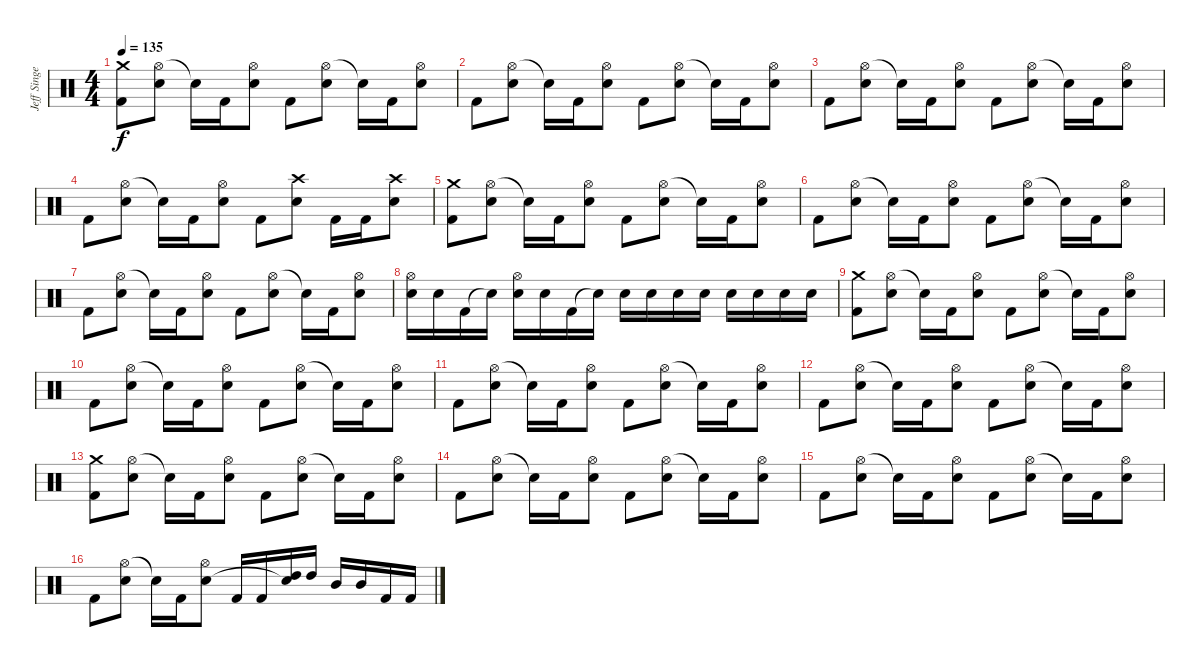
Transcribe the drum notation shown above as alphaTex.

\track ("Jeff Singer" "Jeff Singe") {instrument percussion}
\staff {score}
\articulation defaults
\ts (4 4)
\tempo 135
\clef neutral
\ks c
("Crash medium (hit)" "Kick (hit) 2").8{dy f} ("Hi-Hat (open)" "Snare (hit) 2").8 "Snare (hit)"{t}.16 "Kick (hit) 2".16 ("Hi-Hat (open)" "Snare (hit) 2").8 "Kick (hit) 2".8 ("Hi-Hat (open)" "Snare (hit) 2").8 "Snare (hit)"{t}.16 "Kick (hit) 2".16 ("Hi-Hat (open)" "Snare (hit) 2").8 |
"Kick (hit) 2".8 ("Hi-Hat (open)" "Snare (hit) 2").8 "Snare (hit)"{t}.16 "Kick (hit) 2".16 ("Hi-Hat (open)" "Snare (hit) 2").8 "Kick (hit) 2".8 ("Hi-Hat (open)" "Snare (hit) 2").8 "Snare (hit)"{t}.16 "Kick (hit) 2".16 ("Hi-Hat (open)" "Snare (hit) 2").8 |
"Kick (hit) 2".8 ("Hi-Hat (open)" "Snare (hit) 2").8 "Snare (hit)"{t}.16 "Kick (hit) 2".16 ("Hi-Hat (open)" "Snare (hit) 2").8 "Kick (hit) 2".8 ("Hi-Hat (open)" "Snare (hit) 2").8 "Snare (hit)"{t}.16 "Kick (hit) 2".16 ("Hi-Hat (open)" "Snare (hit) 2").8 |
"Kick (hit) 2".8 ("Hi-Hat (open)" "Snare (hit) 2").8 "Snare (hit)"{t}.16 "Kick (hit) 2".16 ("Hi-Hat (open)" "Snare (hit) 2").8 "Kick (hit) 2".8 ("Crash high (hit)" "Snare (hit) 2").8 "Kick (hit) 2".16 "Kick (hit) 2".16 ("Crash high (hit)" "Snare (hit) 2").8 |
("Crash medium (hit)" "Kick (hit) 2").8 ("Hi-Hat (open)" "Snare (hit) 2").8 "Snare (hit)"{t}.16 "Kick (hit) 2".16 ("Hi-Hat (open)" "Snare (hit) 2").8 "Kick (hit) 2".8 ("Hi-Hat (open)" "Snare (hit) 2").8 "Snare (hit)"{t}.16 "Kick (hit) 2".16 ("Hi-Hat (open)" "Snare (hit) 2").8 |
"Kick (hit) 2".8 ("Hi-Hat (open)" "Snare (hit) 2").8 "Snare (hit)"{t}.16 "Kick (hit) 2".16 ("Hi-Hat (open)" "Snare (hit) 2").8 "Kick (hit) 2".8 ("Hi-Hat (open)" "Snare (hit) 2").8 "Snare (hit)"{t}.16 "Kick (hit) 2".16 ("Hi-Hat (open)" "Snare (hit) 2").8 |
"Kick (hit) 2".8 ("Hi-Hat (open)" "Snare (hit) 2").8 "Snare (hit)"{t}.16 "Kick (hit) 2".16 ("Hi-Hat (open)" "Snare (hit) 2").8 "Kick (hit) 2".8 ("Hi-Hat (open)" "Snare (hit) 2").8 "Snare (hit)"{t}.16 "Kick (hit) 2".16 ("Hi-Hat (open)" "Snare (hit) 2").8 |
("Hi-Hat (open)" "Snare (hit) 2").16 "Snare (hit) 2".16 "Kick (hit) 2".16 "Snare (hit)"{t}.16 ("Hi-Hat (open)" "Snare (hit) 2").16 "Snare (hit) 2".16 "Kick (hit) 2".16 "Snare (hit)"{t}.16 "Snare (hit) 2".16 "Snare (hit) 2".16 "Snare (hit) 2".16 "Snare (hit) 2".16 "Snare (hit) 2".16 "Snare (hit) 2".16 "Snare (hit) 2".16 "Snare (hit) 2".16 |
("Crash medium (hit)" "Kick (hit) 2").8 ("Hi-Hat (open)" "Snare (hit) 2").8 "Snare (hit)"{t}.16 "Kick (hit) 2".16 ("Hi-Hat (open)" "Snare (hit) 2").8 "Kick (hit) 2".8 ("Hi-Hat (open)" "Snare (hit) 2").8 "Snare (hit)"{t}.16 "Kick (hit) 2".16 ("Hi-Hat (open)" "Snare (hit) 2").8 |
"Kick (hit) 2".8 ("Hi-Hat (open)" "Snare (hit) 2").8 "Snare (hit)"{t}.16 "Kick (hit) 2".16 ("Hi-Hat (open)" "Snare (hit) 2").8 "Kick (hit) 2".8 ("Hi-Hat (open)" "Snare (hit) 2").8 "Snare (hit)"{t}.16 "Kick (hit) 2".16 ("Hi-Hat (open)" "Snare (hit) 2").8 |
"Kick (hit) 2".8 ("Hi-Hat (open)" "Snare (hit) 2").8 "Snare (hit)"{t}.16 "Kick (hit) 2".16 ("Hi-Hat (open)" "Snare (hit) 2").8 "Kick (hit) 2".8 ("Hi-Hat (open)" "Snare (hit) 2").8 "Snare (hit)"{t}.16 "Kick (hit) 2".16 ("Hi-Hat (open)" "Snare (hit) 2").8 |
"Kick (hit) 2".8 ("Hi-Hat (open)" "Snare (hit) 2").8 "Snare (hit)"{t}.16 "Kick (hit) 2".16 ("Hi-Hat (open)" "Snare (hit) 2").8 "Kick (hit) 2".8 ("Hi-Hat (open)" "Snare (hit) 2").8 "Snare (hit)"{t}.16 "Kick (hit) 2".16 ("Hi-Hat (open)" "Snare (hit) 2").8 |
("Crash medium (hit)" "Kick (hit) 2").8 ("Hi-Hat (open)" "Snare (hit) 2").8 "Snare (hit)"{t}.16 "Kick (hit) 2".16 ("Hi-Hat (open)" "Snare (hit) 2").8 "Kick (hit) 2".8 ("Hi-Hat (open)" "Snare (hit) 2").8 "Snare (hit)"{t}.16 "Kick (hit) 2".16 ("Hi-Hat (open)" "Snare (hit) 2").8 |
"Kick (hit) 2".8 ("Hi-Hat (open)" "Snare (hit) 2").8 "Snare (hit)"{t}.16 "Kick (hit) 2".16 ("Hi-Hat (open)" "Snare (hit) 2").8 "Kick (hit) 2".8 ("Hi-Hat (open)" "Snare (hit) 2").8 "Snare (hit)"{t}.16 "Kick (hit) 2".16 ("Hi-Hat (open)" "Snare (hit) 2").8 |
"Kick (hit) 2".8 ("Hi-Hat (open)" "Snare (hit) 2").8 "Snare (hit)"{t}.16 "Kick (hit) 2".16 ("Hi-Hat (open)" "Snare (hit) 2").8 "Kick (hit) 2".8 ("Hi-Hat (open)" "Snare (hit) 2").8 "Snare (hit)"{t}.16 "Kick (hit) 2".16 ("Hi-Hat (open)" "Snare (hit) 2").8 |
"Kick (hit) 2".8 ("Hi-Hat (open)" "Snare (hit) 2").8 "Snare (hit)"{t}.16 "Kick (hit) 2".16 ("Hi-Hat (open)" "Snare (hit) 2").8 "Kick (hit) 2".16 "Kick (hit) 2".16 ("High Tom (hit)" "Snare (hit)"{t}).16 "High Tom (hit)".16 "Mid Tom (hit)".16 "Mid Tom (hit)".16 "Kick (hit) 2".16 "Kick (hit) 2".16
